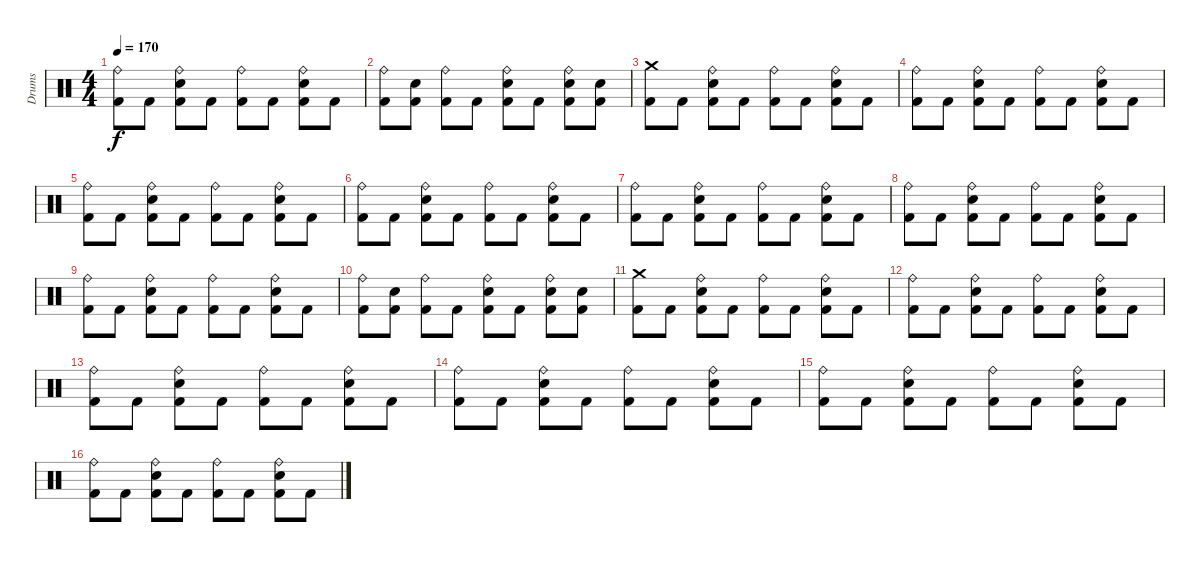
\track ("Drums" "Drums") {instrument percussion}
\staff {score}
\articulation defaults
\ts (4 4)
\tempo 170
\clef neutral
\ks c
("Ride (bell)" "Kick (hit) 2").8{dy f} "Kick (hit) 2".8 ("Ride (bell)" "Electric Snare (hit)" "Kick (hit) 2").8 "Kick (hit) 2".8 ("Ride (bell)" "Kick (hit) 2").8 "Kick (hit) 2".8 ("Ride (bell)" "Electric Snare (hit)" "Kick (hit) 2").8 "Kick (hit) 2".8 |
("Ride (bell)" "Kick (hit) 2").8 ("Electric Snare (hit)" "Kick (hit) 2").8 ("Ride (bell)" "Kick (hit) 2").8 "Kick (hit) 2".8 ("Ride (bell)" "Electric Snare (hit)" "Kick (hit) 2").8 "Kick (hit) 2".8 ("Ride (bell)" "Electric Snare (hit)" "Kick (hit) 2").8 ("Electric Snare (hit)" "Kick (hit) 2").8 |
("Crash medium (hit)" "Kick (hit) 2").8 "Kick (hit) 2".8 ("Ride (bell)" "Electric Snare (hit)" "Kick (hit) 2").8 "Kick (hit) 2".8 ("Ride (bell)" "Kick (hit) 2").8 "Kick (hit) 2".8 ("Ride (bell)" "Electric Snare (hit)" "Kick (hit) 2").8 "Kick (hit) 2".8 |
("Ride (bell)" "Kick (hit) 2").8 "Kick (hit) 2".8 ("Ride (bell)" "Electric Snare (hit)" "Kick (hit) 2").8 "Kick (hit) 2".8 ("Ride (bell)" "Kick (hit) 2").8 "Kick (hit) 2".8 ("Ride (bell)" "Electric Snare (hit)" "Kick (hit) 2").8 "Kick (hit) 2".8 |
("Ride (bell)" "Kick (hit) 2").8 "Kick (hit) 2".8 ("Ride (bell)" "Electric Snare (hit)" "Kick (hit) 2").8 "Kick (hit) 2".8 ("Ride (bell)" "Kick (hit) 2").8 "Kick (hit) 2".8 ("Ride (bell)" "Electric Snare (hit)" "Kick (hit) 2").8 "Kick (hit) 2".8 |
("Ride (bell)" "Kick (hit) 2").8 "Kick (hit) 2".8 ("Ride (bell)" "Electric Snare (hit)" "Kick (hit) 2").8 "Kick (hit) 2".8 ("Ride (bell)" "Kick (hit) 2").8 "Kick (hit) 2".8 ("Ride (bell)" "Electric Snare (hit)" "Kick (hit) 2").8 "Kick (hit) 2".8 |
("Ride (bell)" "Kick (hit) 2").8 "Kick (hit) 2".8 ("Ride (bell)" "Electric Snare (hit)" "Kick (hit) 2").8 "Kick (hit) 2".8 ("Ride (bell)" "Kick (hit) 2").8 "Kick (hit) 2".8 ("Ride (bell)" "Electric Snare (hit)" "Kick (hit) 2").8 "Kick (hit) 2".8 |
("Ride (bell)" "Kick (hit) 2").8 "Kick (hit) 2".8 ("Ride (bell)" "Electric Snare (hit)" "Kick (hit) 2").8 "Kick (hit) 2".8 ("Ride (bell)" "Kick (hit) 2").8 "Kick (hit) 2".8 ("Ride (bell)" "Electric Snare (hit)" "Kick (hit) 2").8 "Kick (hit) 2".8 |
("Ride (bell)" "Kick (hit) 2").8 "Kick (hit) 2".8 ("Ride (bell)" "Electric Snare (hit)" "Kick (hit) 2").8 "Kick (hit) 2".8 ("Ride (bell)" "Kick (hit) 2").8 "Kick (hit) 2".8 ("Ride (bell)" "Electric Snare (hit)" "Kick (hit) 2").8 "Kick (hit) 2".8 |
("Ride (bell)" "Kick (hit) 2").8 ("Electric Snare (hit)" "Kick (hit) 2").8 ("Ride (bell)" "Kick (hit) 2").8 "Kick (hit) 2".8 ("Ride (bell)" "Electric Snare (hit)" "Kick (hit) 2").8 "Kick (hit) 2".8 ("Ride (bell)" "Electric Snare (hit)" "Kick (hit) 2").8 ("Electric Snare (hit)" "Kick (hit) 2").8 |
("Crash medium (hit)" "Kick (hit) 2").8 "Kick (hit) 2".8 ("Ride (bell)" "Electric Snare (hit)" "Kick (hit) 2").8 "Kick (hit) 2".8 ("Ride (bell)" "Kick (hit) 2").8 "Kick (hit) 2".8 ("Ride (bell)" "Electric Snare (hit)" "Kick (hit) 2").8 "Kick (hit) 2".8 |
("Ride (bell)" "Kick (hit) 2").8 "Kick (hit) 2".8 ("Ride (bell)" "Electric Snare (hit)" "Kick (hit) 2").8 "Kick (hit) 2".8 ("Ride (bell)" "Kick (hit) 2").8 "Kick (hit) 2".8 ("Ride (bell)" "Electric Snare (hit)" "Kick (hit) 2").8 "Kick (hit) 2".8 |
("Ride (bell)" "Kick (hit) 2").8 "Kick (hit) 2".8 ("Ride (bell)" "Electric Snare (hit)" "Kick (hit) 2").8 "Kick (hit) 2".8 ("Ride (bell)" "Kick (hit) 2").8 "Kick (hit) 2".8 ("Ride (bell)" "Electric Snare (hit)" "Kick (hit) 2").8 "Kick (hit) 2".8 |
("Ride (bell)" "Kick (hit) 2").8 "Kick (hit) 2".8 ("Ride (bell)" "Electric Snare (hit)" "Kick (hit) 2").8 "Kick (hit) 2".8 ("Ride (bell)" "Kick (hit) 2").8 "Kick (hit) 2".8 ("Ride (bell)" "Electric Snare (hit)" "Kick (hit) 2").8 "Kick (hit) 2".8 |
("Ride (bell)" "Kick (hit) 2").8 "Kick (hit) 2".8 ("Ride (bell)" "Electric Snare (hit)" "Kick (hit) 2").8 "Kick (hit) 2".8 ("Ride (bell)" "Kick (hit) 2").8 "Kick (hit) 2".8 ("Ride (bell)" "Electric Snare (hit)" "Kick (hit) 2").8 "Kick (hit) 2".8 |
("Ride (bell)" "Kick (hit) 2").8 "Kick (hit) 2".8 ("Ride (bell)" "Electric Snare (hit)" "Kick (hit) 2").8 "Kick (hit) 2".8 ("Ride (bell)" "Kick (hit) 2").8 "Kick (hit) 2".8 ("Ride (bell)" "Electric Snare (hit)" "Kick (hit) 2").8 "Kick (hit) 2".8
